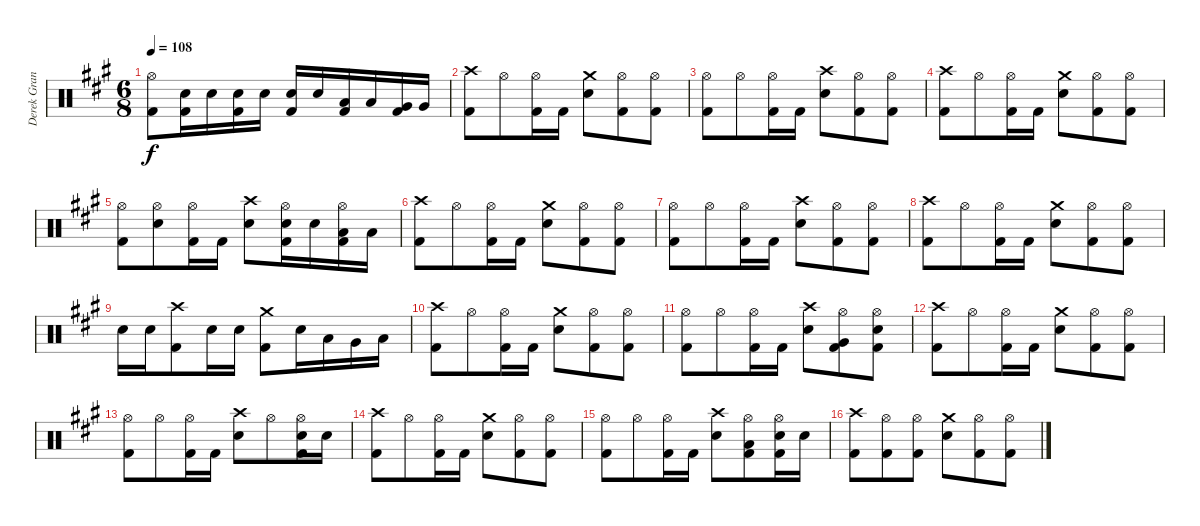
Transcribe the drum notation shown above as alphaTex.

\track ("Derek Grant - Drums" "Derek Gran") {instrument percussion}
\staff {score}
\articulation defaults
\ts (6 8)
\tempo 108
\clef neutral
\ks a
("Hi-Hat (open)" "Kick (hit) 2").8{dy f} ("Snare (hit) 2" "Kick (hit) 2").16 "Snare (hit) 2".16 ("Snare (hit) 2" "Kick (hit) 2").16 "Snare (hit) 2".16 ("Snare (hit) 2" "Kick (hit) 2").16 "Snare (hit) 2".16 ("Low Tom (hit)" "Kick (hit) 2").16 "Low Tom (hit)".16 ("Very Low Tom (hit)" "Kick (hit) 2").16 "Very Low Tom (hit)".16 |
("Kick (hit) 2" "Crash high (hit)").8 "Hi-Hat (open)".8 ("Hi-Hat (open)" "Kick (hit) 2").16 "Kick (hit) 2".16 ("Snare (hit) 2" "Crash medium (hit)").8 ("Hi-Hat (open)" "Kick (hit) 2").8 ("Hi-Hat (open)" "Kick (hit) 2").8 |
("Kick (hit) 2" "Hi-Hat (open)").8 "Hi-Hat (open)".8 ("Hi-Hat (open)" "Kick (hit) 2").16 "Kick (hit) 2".16 ("Snare (hit) 2" "Crash high (hit)").8 ("Hi-Hat (open)" "Kick (hit) 2").8 ("Hi-Hat (open)" "Kick (hit) 2").8 |
("Kick (hit) 2" "Crash high (hit)").8 "Hi-Hat (open)".8 ("Hi-Hat (open)" "Kick (hit) 2").16 "Kick (hit) 2".16 ("Snare (hit) 2" "Crash medium (hit)").8 ("Hi-Hat (open)" "Kick (hit) 2").8 ("Hi-Hat (open)" "Kick (hit) 2").8 |
("Kick (hit) 2" "Hi-Hat (open)").8 ("Hi-Hat (open)" "Snare (hit) 2").8 ("Hi-Hat (open)" "Kick (hit) 2").16 "Kick (hit) 2".16 ("Snare (hit) 2" "Crash high (hit)").8 ("Hi-Hat (open)" "Kick (hit) 2" "Snare (hit) 2").16 "Snare (hit) 2".16 ("Hi-Hat (open)" "Kick (hit) 2" "Low Tom (hit)").16 "Low Tom (hit)".16 |
("Kick (hit) 2" "Crash high (hit)").8 "Hi-Hat (open)".8 ("Hi-Hat (open)" "Kick (hit) 2").16 "Kick (hit) 2".16 ("Snare (hit) 2" "Crash medium (hit)").8 ("Hi-Hat (open)" "Kick (hit) 2").8 ("Hi-Hat (open)" "Kick (hit) 2").8 |
("Kick (hit) 2" "Hi-Hat (open)").8 "Hi-Hat (open)".8 ("Hi-Hat (open)" "Kick (hit) 2").16 "Kick (hit) 2".16 ("Snare (hit) 2" "Crash high (hit)").8 ("Hi-Hat (open)" "Kick (hit) 2").8 ("Hi-Hat (open)" "Kick (hit) 2").8 |
("Kick (hit) 2" "Crash high (hit)").8 "Hi-Hat (open)".8 ("Hi-Hat (open)" "Kick (hit) 2").16 "Kick (hit) 2".16 ("Snare (hit) 2" "Crash medium (hit)").8 ("Hi-Hat (open)" "Kick (hit) 2").8 ("Hi-Hat (open)" "Kick (hit) 2").8 |
"Snare (hit) 2".16 "Snare (hit) 2".16 ("Kick (hit) 2" "Crash high (hit)").8 "Snare (hit) 2".16 "Snare (hit) 2".16 ("Kick (hit) 2" "Crash medium (hit)").8 "Snare (hit) 2".16 "Low Tom (hit)".16 "Very Low Tom (hit)".16 "Low Floor Tom (hit)".16 |
("Kick (hit) 2" "Crash high (hit)").8 "Hi-Hat (open)".8 ("Hi-Hat (open)" "Kick (hit) 2").16 "Kick (hit) 2".16 ("Snare (hit) 2" "Crash medium (hit)").8 ("Hi-Hat (open)" "Kick (hit) 2").8 ("Hi-Hat (open)" "Kick (hit) 2").8 |
("Kick (hit) 2" "Hi-Hat (open)").8 "Hi-Hat (open)".8 ("Hi-Hat (open)" "Kick (hit) 2").16 "Kick (hit) 2".16 ("Snare (hit) 2" "Crash high (hit)").8 ("Hi-Hat (open)" "Kick (hit) 2" "Very Low Tom (hit)").8 ("Hi-Hat (open)" "Kick (hit) 2" "Snare (hit) 2").8 |
("Kick (hit) 2" "Crash high (hit)").8 "Hi-Hat (open)".8 ("Hi-Hat (open)" "Kick (hit) 2").16 "Kick (hit) 2".16 ("Snare (hit) 2" "Crash medium (hit)").8 ("Hi-Hat (open)" "Kick (hit) 2").8 ("Hi-Hat (open)" "Kick (hit) 2").8 |
("Kick (hit) 2" "Hi-Hat (open)").8 "Hi-Hat (open)".8 ("Hi-Hat (open)" "Kick (hit) 2").16 "Kick (hit) 2".16 ("Snare (hit) 2" "Crash high (hit)").8 "Hi-Hat (open)".8 ("Hi-Hat (open)" "Kick (hit) 2" "Snare (hit) 2").16 "Snare (hit) 2".16 |
("Kick (hit) 2" "Crash high (hit)").8 "Hi-Hat (open)".8 ("Hi-Hat (open)" "Kick (hit) 2").16 "Kick (hit) 2".16 ("Snare (hit) 2" "Crash medium (hit)").8 ("Hi-Hat (open)" "Kick (hit) 2").8 ("Hi-Hat (open)" "Kick (hit) 2").8 |
("Kick (hit) 2" "Hi-Hat (open)").8 "Hi-Hat (open)".8 ("Hi-Hat (open)" "Kick (hit) 2").16 "Kick (hit) 2".16 ("Snare (hit) 2" "Crash high (hit)").8 ("Hi-Hat (open)" "Low Tom (hit)" "Kick (hit) 2").8 ("Hi-Hat (open)" "Kick (hit) 2" "Snare (hit) 2").16 "Snare (hit) 2".16 |
("Kick (hit) 2" "Crash high (hit)").8 ("Hi-Hat (open)" "Kick (hit) 2").8 ("Hi-Hat (open)" "Kick (hit) 2").8 ("Snare (hit) 2" "Crash medium (hit)").8 ("Hi-Hat (open)" "Kick (hit) 2").8 ("Hi-Hat (open)" "Kick (hit) 2").8
